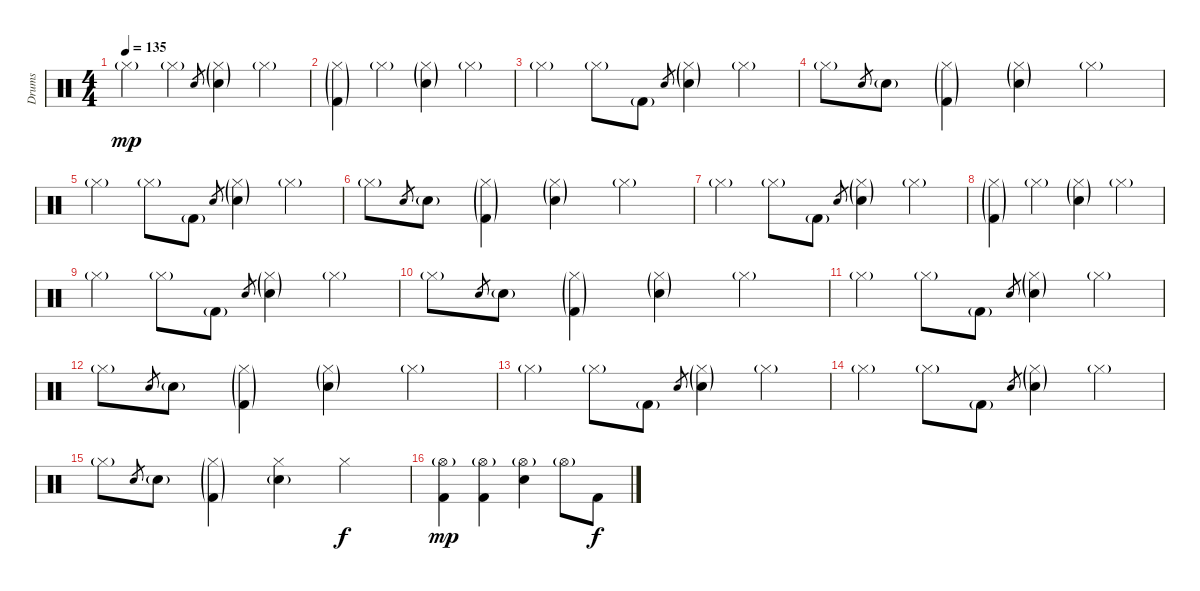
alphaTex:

\track ("Drums" "Drums") {instrument percussion}
\staff {score}
\articulation defaults
\ts (4 4)
\tempo 135
\clef neutral
\ks c "Hi-Hat (closed)"{g}.4{dy mp} "Hi-Hat (closed)"{g}.4 "Snare (hit) 2".8{gr}
("Snare (hit) 2"{g} "Hi-Hat (closed)"{g}).4 "Hi-Hat (closed)"{g}.4 |
("Kick (hit) 2"{g} "Hi-Hat (closed)"{g}).4 "Hi-Hat (closed)"{g}.4 ("Snare (hit) 2"{g} "Hi-Hat (closed)"{g}).4 "Hi-Hat (closed)"{g}.4 |
"Hi-Hat (closed)"{g}.4 "Hi-Hat (closed)"{g}.8 "Kick (hit) 2"{g}.8 "Snare (hit) 2".8{gr} ("Snare (hit) 2"{g} "Hi-Hat (closed)"{g}).4 "Hi-Hat (closed)"{g}.4 |
"Hi-Hat (closed)"{g}.8 "Snare (hit) 2".8{gr} "Snare (hit) 2"{g}.8 ("Kick (hit) 2"{g} "Hi-Hat (closed)"{g}).4 ("Snare (hit) 2"{g} "Hi-Hat (closed)"{g}).4 "Hi-Hat (closed)"{g}.4 |
"Hi-Hat (closed)"{g}.4 "Hi-Hat (closed)"{g}.8 "Kick (hit) 2"{g}.8 "Snare (hit) 2".8{gr} ("Snare (hit) 2"{g} "Hi-Hat (closed)"{g}).4 "Hi-Hat (closed)"{g}.4 |
"Hi-Hat (closed)"{g}.8 "Snare (hit) 2".8{gr} "Snare (hit) 2"{g}.8 ("Kick (hit) 2"{g} "Hi-Hat (closed)"{g}).4 ("Snare (hit) 2"{g} "Hi-Hat (closed)"{g}).4 "Hi-Hat (closed)"{g}.4 |
"Hi-Hat (closed)"{g}.4 "Hi-Hat (closed)"{g}.8 "Kick (hit) 2"{g}.8 "Snare (hit) 2".8{gr} ("Snare (hit) 2"{g} "Hi-Hat (closed)"{g}).4 "Hi-Hat (closed)"{g}.4 |
("Kick (hit) 2"{g} "Hi-Hat (closed)"{g}).4 "Hi-Hat (closed)"{g}.4 ("Snare (hit) 2"{g} "Hi-Hat (closed)"{g}).4 "Hi-Hat (closed)"{g}.4 |
"Hi-Hat (closed)"{g}.4 "Hi-Hat (closed)"{g}.8 "Kick (hit) 2"{g}.8 "Snare (hit) 2".8{gr} ("Snare (hit) 2"{g} "Hi-Hat (closed)"{g}).4 "Hi-Hat (closed)"{g}.4 |
"Hi-Hat (closed)"{g}.8 "Snare (hit) 2".8{gr} "Snare (hit) 2"{g}.8 ("Kick (hit) 2"{g} "Hi-Hat (closed)"{g}).4 ("Snare (hit) 2"{g} "Hi-Hat (closed)"{g}).4 "Hi-Hat (closed)"{g}.4 |
"Hi-Hat (closed)"{g}.4 "Hi-Hat (closed)"{g}.8 "Kick (hit) 2"{g}.8 "Snare (hit) 2".8{gr} ("Snare (hit) 2"{g} "Hi-Hat (closed)"{g}).4 "Hi-Hat (closed)"{g}.4 |
"Hi-Hat (closed)"{g}.8 "Snare (hit) 2".8{gr} "Snare (hit) 2"{g}.8 ("Kick (hit) 2"{g} "Hi-Hat (closed)"{g}).4 ("Snare (hit) 2"{g} "Hi-Hat (closed)"{g}).4 "Hi-Hat (closed)"{g}.4 |
"Hi-Hat (closed)"{g}.4 "Hi-Hat (closed)"{g}.8 "Kick (hit) 2"{g}.8 "Snare (hit) 2".8{gr} ("Snare (hit) 2"{g} "Hi-Hat (closed)"{g}).4 "Hi-Hat (closed)"{g}.4 |
"Hi-Hat (closed)"{g}.4 "Hi-Hat (closed)"{g}.8 "Kick (hit) 2"{g}.8 "Snare (hit) 2".8{gr} ("Snare (hit) 2"{g} "Hi-Hat (closed)"{g}).4 "Hi-Hat (closed)"{g}.4 |
"Hi-Hat (closed)"{g}.8 "Snare (hit) 2".8{gr} "Snare (hit) 2"{g}.8 ("Kick (hit) 2"{g} "Hi-Hat (closed)"{g}).4 ("Snare (hit) 2"{g} "Hi-Hat (closed)").4 "Hi-Hat (closed)".4{dy f} |
("Kick (hit) 2" "Hi-Hat (open)"{g}).4{dy mp} ("Kick (hit) 2" "Hi-Hat (open)"{g}).4 ("Snare (hit) 2" "Hi-Hat (open)"{g}).4 "Hi-Hat (open)"{g}.8 "Kick (hit) 2".8{dy f}
